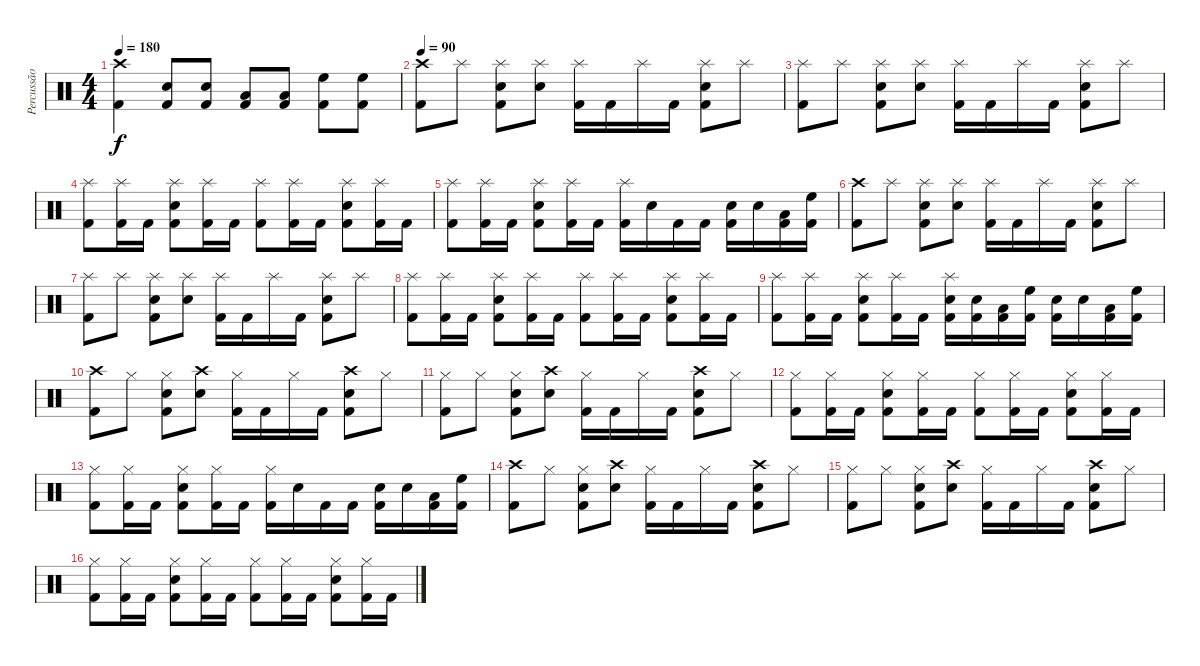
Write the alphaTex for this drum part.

\track ("Percussão" "Percussão") {instrument percussion}
\staff {score}
\articulation defaults
\ts (4 4)
\tempo 180
\clef neutral
\ks c
("Kick (hit) 2" "Crash high (hit)").4{dy f} ("Kick (hit) 2" "Snare (hit) 2").8 ("Kick (hit) 2" "Snare (hit) 2").8 ("Kick (hit) 2" "Low Tom (hit)").8 ("Kick (hit) 2" "Low Tom (hit)").8 ("Kick (hit) 2" "High Floor Tom (hit)").8 ("Kick (hit) 2" "High Floor Tom (hit)").8 |
\tempo 90
("Kick (hit) 2" "Crash high (hit)").8 "Splash (hit)".8 ("Kick (hit) 2" "Snare (hit) 2" "Splash (hit)").8 ("Snare (hit) 2" "Splash (hit)").8 ("Kick (hit) 2" "Splash (hit)").16 "Kick (hit) 2".16 "Splash (hit)".16 "Kick (hit) 2".16 ("Kick (hit) 2" "Snare (hit) 2" "Splash (hit)").8 "Splash (hit)".8 |
("Kick (hit) 2" "Splash (hit)").8 "Splash (hit)".8 ("Kick (hit) 2" "Snare (hit) 2" "Splash (hit)").8 ("Snare (hit) 2" "Splash (hit)").8 ("Kick (hit) 2" "Splash (hit)").16 "Kick (hit) 2".16 "Splash (hit)".16 "Kick (hit) 2".16 ("Kick (hit) 2" "Snare (hit) 2" "Splash (hit)").8 "Splash (hit)".8 |
("Kick (hit) 2" "Splash (hit)").8 ("Kick (hit) 2" "Splash (hit)").16 "Kick (hit) 2".16 ("Kick (hit) 2" "Snare (hit) 2" "Splash (hit)").8 ("Kick (hit) 2" "Splash (hit)").16 "Kick (hit) 2".16 ("Kick (hit) 2" "Splash (hit)").8 ("Kick (hit) 2" "Splash (hit)").16 "Kick (hit) 2".16 ("Kick (hit) 2" "Snare (hit) 2" "Splash (hit)").8 ("Kick (hit) 2" "Splash (hit)").16 "Kick (hit) 2".16 |
("Kick (hit) 2" "Splash (hit)").8 ("Kick (hit) 2" "Splash (hit)").16 "Kick (hit) 2".16 ("Kick (hit) 2" "Snare (hit) 2" "Splash (hit)").8 ("Kick (hit) 2" "Splash (hit)").16 "Kick (hit) 2".16 ("Kick (hit) 2" "Splash (hit)").16 "Snare (hit) 2".16 "Kick (hit) 2".16 "Kick (hit) 2".16 ("Kick (hit) 2" "Snare (hit) 2").16 "Snare (hit) 2".16 ("Kick (hit) 2" "Low Tom (hit)").16 ("Kick (hit) 2" "High Floor Tom (hit)").16 |
("Kick (hit) 2" "Crash high (hit)").8 "Splash (hit)".8 ("Kick (hit) 2" "Snare (hit) 2" "Splash (hit)").8 ("Snare (hit) 2" "Splash (hit)").8 ("Kick (hit) 2" "Splash (hit)").16 "Kick (hit) 2".16 "Splash (hit)".16 "Kick (hit) 2".16 ("Kick (hit) 2" "Snare (hit) 2" "Splash (hit)").8 "Splash (hit)".8 |
("Kick (hit) 2" "Splash (hit)").8 "Splash (hit)".8 ("Kick (hit) 2" "Snare (hit) 2" "Splash (hit)").8 ("Snare (hit) 2" "Splash (hit)").8 ("Kick (hit) 2" "Splash (hit)").16 "Kick (hit) 2".16 "Splash (hit)".16 "Kick (hit) 2".16 ("Kick (hit) 2" "Snare (hit) 2" "Splash (hit)").8 "Splash (hit)".8 |
("Kick (hit) 2" "Splash (hit)").8 ("Kick (hit) 2" "Splash (hit)").16 "Kick (hit) 2".16 ("Kick (hit) 2" "Snare (hit) 2" "Splash (hit)").8 ("Kick (hit) 2" "Splash (hit)").16 "Kick (hit) 2".16 ("Kick (hit) 2" "Splash (hit)").8 ("Kick (hit) 2" "Splash (hit)").16 "Kick (hit) 2".16 ("Kick (hit) 2" "Snare (hit) 2" "Splash (hit)").8 ("Kick (hit) 2" "Splash (hit)").16 "Kick (hit) 2".16 |
("Kick (hit) 2" "Splash (hit)").8 ("Kick (hit) 2" "Splash (hit)").16 "Kick (hit) 2".16 ("Kick (hit) 2" "Snare (hit) 2" "Splash (hit)").8 ("Kick (hit) 2" "Splash (hit)").16 "Kick (hit) 2".16 ("Kick (hit) 2" "Snare (hit) 2" "Splash (hit)").16 ("Kick (hit) 2" "Snare (hit) 2").16 ("Kick (hit) 2" "Low Tom (hit)").16 ("Kick (hit) 2" "High Floor Tom (hit)").16 ("Kick (hit) 2" "Snare (hit) 2").16 "Snare (hit) 2".16 ("Kick (hit) 2" "Low Tom (hit)").16 ("Kick (hit) 2" "High Floor Tom (hit)").16 |
("Kick (hit) 2" "Crash high (hit)").8 "Hi-Hat (closed)".8 ("Kick (hit) 2" "Snare (hit) 2" "Hi-Hat (closed)").8 ("Snare (hit) 2" "Crash high (hit)").8 ("Kick (hit) 2" "Hi-Hat (closed)").16 "Kick (hit) 2".16 "Hi-Hat (closed)".16 "Kick (hit) 2".16 ("Kick (hit) 2" "Snare (hit) 2" "Crash high (hit)").8 "Hi-Hat (closed)".8 |
("Kick (hit) 2" "Hi-Hat (closed)").8 "Hi-Hat (closed)".8 ("Kick (hit) 2" "Snare (hit) 2" "Hi-Hat (closed)").8 ("Snare (hit) 2" "Crash high (hit)").8 ("Kick (hit) 2" "Hi-Hat (closed)").16 "Kick (hit) 2".16 "Hi-Hat (closed)".16 "Kick (hit) 2".16 ("Kick (hit) 2" "Snare (hit) 2" "Crash high (hit)").8 "Hi-Hat (closed)".8 |
("Kick (hit) 2" "Hi-Hat (closed)").8 ("Kick (hit) 2" "Hi-Hat (closed)").16 "Kick (hit) 2".16 ("Kick (hit) 2" "Snare (hit) 2" "Hi-Hat (closed)").8 ("Kick (hit) 2" "Hi-Hat (closed)").16 "Kick (hit) 2".16 ("Kick (hit) 2" "Hi-Hat (closed)").8 ("Kick (hit) 2" "Hi-Hat (closed)").16 "Kick (hit) 2".16 ("Kick (hit) 2" "Snare (hit) 2" "Hi-Hat (closed)").8 ("Kick (hit) 2" "Hi-Hat (closed)").16 "Kick (hit) 2".16 |
("Kick (hit) 2" "Hi-Hat (closed)").8 ("Kick (hit) 2" "Hi-Hat (closed)").16 "Kick (hit) 2".16 ("Kick (hit) 2" "Snare (hit) 2" "Hi-Hat (closed)").8 ("Kick (hit) 2" "Hi-Hat (closed)").16 "Kick (hit) 2".16 ("Kick (hit) 2" "Hi-Hat (closed)").16 "Snare (hit) 2".16 "Kick (hit) 2".16 "Kick (hit) 2".16 ("Kick (hit) 2" "Snare (hit) 2").16 "Snare (hit) 2".16 ("Kick (hit) 2" "Low Tom (hit)").16 ("Kick (hit) 2" "High Floor Tom (hit)").16 |
("Kick (hit) 2" "Crash high (hit)").8 "Hi-Hat (closed)".8 ("Kick (hit) 2" "Snare (hit) 2" "Hi-Hat (closed)").8 ("Snare (hit) 2" "Crash high (hit)").8 ("Kick (hit) 2" "Hi-Hat (closed)").16 "Kick (hit) 2".16 "Hi-Hat (closed)".16 "Kick (hit) 2".16 ("Kick (hit) 2" "Snare (hit) 2" "Crash high (hit)").8 "Hi-Hat (closed)".8 |
("Kick (hit) 2" "Hi-Hat (closed)").8 "Hi-Hat (closed)".8 ("Kick (hit) 2" "Snare (hit) 2" "Hi-Hat (closed)").8 ("Snare (hit) 2" "Crash high (hit)").8 ("Kick (hit) 2" "Hi-Hat (closed)").16 "Kick (hit) 2".16 "Hi-Hat (closed)".16 "Kick (hit) 2".16 ("Kick (hit) 2" "Snare (hit) 2" "Crash high (hit)").8 "Hi-Hat (closed)".8 |
("Kick (hit) 2" "Hi-Hat (closed)").8 ("Kick (hit) 2" "Hi-Hat (closed)").16 "Kick (hit) 2".16 ("Kick (hit) 2" "Snare (hit) 2" "Hi-Hat (closed)").8 ("Kick (hit) 2" "Hi-Hat (closed)").16 "Kick (hit) 2".16 ("Kick (hit) 2" "Hi-Hat (closed)").8 ("Kick (hit) 2" "Hi-Hat (closed)").16 "Kick (hit) 2".16 ("Kick (hit) 2" "Snare (hit) 2" "Hi-Hat (closed)").8 ("Kick (hit) 2" "Hi-Hat (closed)").16 "Kick (hit) 2".16
